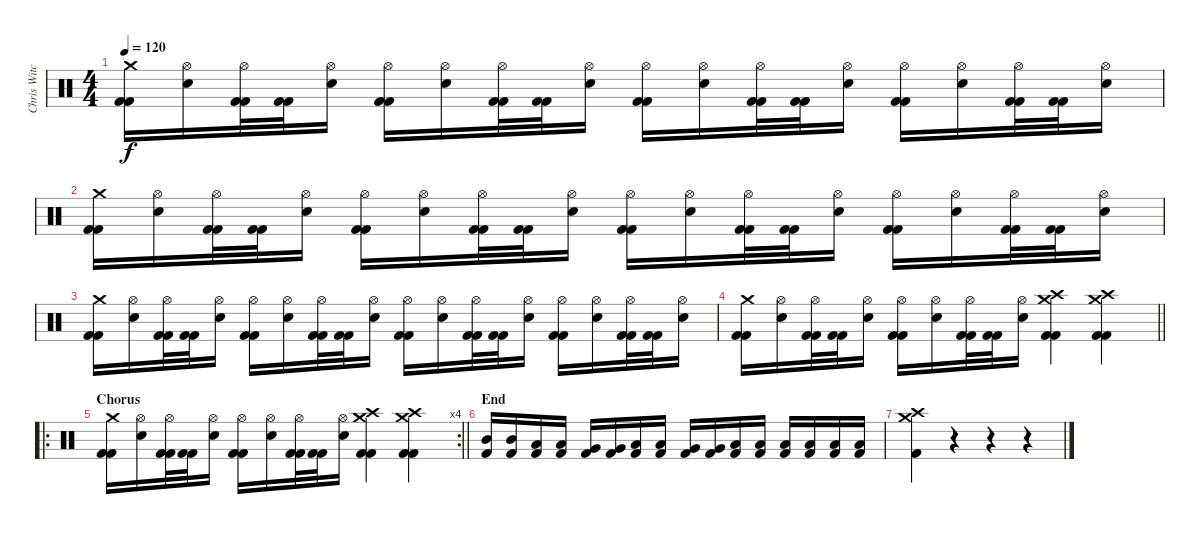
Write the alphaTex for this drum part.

\track ("Chris Witchhunter" "Chris Witc") {instrument percussion}
\staff {score}
\articulation defaults
\ts (4 4)
\tempo 120
\clef neutral
\ks c
("Crash medium (hit)" "Kick (hit) 2" "Kick (hit) 2").16{dy f} ("Hi-Hat (open)" "Snare (hit) 2").16 ("Hi-Hat (open)" "Kick (hit) 2" "Kick (hit) 2").32 ("Kick (hit) 2" "Kick (hit) 2").32 ("Hi-Hat (open)" "Snare (hit) 2").16 ("Hi-Hat (open)" "Kick (hit) 2" "Kick (hit) 2").16 ("Hi-Hat (open)" "Snare (hit) 2").16 ("Hi-Hat (open)" "Kick (hit) 2" "Kick (hit) 2").32 ("Kick (hit) 2" "Kick (hit) 2").32 ("Hi-Hat (open)" "Snare (hit) 2").16 ("Hi-Hat (open)" "Kick (hit) 2" "Kick (hit) 2").16 ("Hi-Hat (open)" "Snare (hit) 2").16 ("Hi-Hat (open)" "Kick (hit) 2" "Kick (hit) 2").32 ("Kick (hit) 2" "Kick (hit) 2").32 ("Hi-Hat (open)" "Snare (hit) 2").16 ("Hi-Hat (open)" "Kick (hit) 2" "Kick (hit) 2").16 ("Hi-Hat (open)" "Snare (hit) 2").16 ("Hi-Hat (open)" "Kick (hit) 2" "Kick (hit) 2").32 ("Kick (hit) 2" "Kick (hit) 2").32 ("Hi-Hat (open)" "Snare (hit) 2").16 |
("Crash medium (hit)" "Kick (hit) 2" "Kick (hit) 2").16 ("Hi-Hat (open)" "Snare (hit) 2").16 ("Hi-Hat (open)" "Kick (hit) 2" "Kick (hit) 2").32 ("Kick (hit) 2" "Kick (hit) 2").32 ("Hi-Hat (open)" "Snare (hit) 2").16 ("Hi-Hat (open)" "Kick (hit) 2" "Kick (hit) 2").16 ("Hi-Hat (open)" "Snare (hit) 2").16 ("Hi-Hat (open)" "Kick (hit) 2" "Kick (hit) 2").32 ("Kick (hit) 2" "Kick (hit) 2").32 ("Hi-Hat (open)" "Snare (hit) 2").16 ("Hi-Hat (open)" "Kick (hit) 2" "Kick (hit) 2").16 ("Hi-Hat (open)" "Snare (hit) 2").16 ("Hi-Hat (open)" "Kick (hit) 2" "Kick (hit) 2").32 ("Kick (hit) 2" "Kick (hit) 2").32 ("Hi-Hat (open)" "Snare (hit) 2").16 ("Hi-Hat (open)" "Kick (hit) 2" "Kick (hit) 2").16 ("Hi-Hat (open)" "Snare (hit) 2").16 ("Hi-Hat (open)" "Kick (hit) 2" "Kick (hit) 2").32 ("Kick (hit) 2" "Kick (hit) 2").32 ("Hi-Hat (open)" "Snare (hit) 2").16 |
("Crash medium (hit)" "Kick (hit) 2" "Kick (hit) 2").16 ("Hi-Hat (open)" "Snare (hit) 2").16 ("Hi-Hat (open)" "Kick (hit) 2" "Kick (hit) 2").32 ("Kick (hit) 2" "Kick (hit) 2").32 ("Hi-Hat (open)" "Snare (hit) 2").16 ("Hi-Hat (open)" "Kick (hit) 2" "Kick (hit) 2").16 ("Hi-Hat (open)" "Snare (hit) 2").16 ("Hi-Hat (open)" "Kick (hit) 2" "Kick (hit) 2").32 ("Kick (hit) 2" "Kick (hit) 2").32 ("Hi-Hat (open)" "Snare (hit) 2").16 ("Hi-Hat (open)" "Kick (hit) 2" "Kick (hit) 2").16 ("Hi-Hat (open)" "Snare (hit) 2").16 ("Hi-Hat (open)" "Kick (hit) 2" "Kick (hit) 2").32 ("Kick (hit) 2" "Kick (hit) 2").32 ("Hi-Hat (open)" "Snare (hit) 2").16 ("Hi-Hat (open)" "Kick (hit) 2" "Kick (hit) 2").16 ("Hi-Hat (open)" "Snare (hit) 2").16 ("Hi-Hat (open)" "Kick (hit) 2" "Kick (hit) 2").32 ("Kick (hit) 2" "Kick (hit) 2").32 ("Hi-Hat (open)" "Snare (hit) 2").16 |
\barLineRight lightlight
("Crash medium (hit)" "Kick (hit) 2" "Kick (hit) 2").16 ("Hi-Hat (open)" "Snare (hit) 2").16 ("Hi-Hat (open)" "Kick (hit) 2" "Kick (hit) 2").32 ("Kick (hit) 2" "Kick (hit) 2").32 ("Hi-Hat (open)" "Snare (hit) 2").16 ("Hi-Hat (open)" "Kick (hit) 2" "Kick (hit) 2").16 ("Hi-Hat (open)" "Snare (hit) 2").16 ("Hi-Hat (open)" "Kick (hit) 2" "Kick (hit) 2").32 ("Kick (hit) 2" "Kick (hit) 2").32 ("Hi-Hat (open)" "Snare (hit) 2").16 ("Crash high (hit)" "Crash medium (hit)" "Kick (hit) 2" "Kick (hit) 2").4 ("Crash high (hit)" "Crash medium (hit)" "Kick (hit) 2" "Kick (hit) 2").4 |
\ro
\rc 4
\section ("" "Chorus")
\barLineRight lightlight
("Crash medium (hit)" "Kick (hit) 2" "Kick (hit) 2").16 ("Hi-Hat (open)" "Snare (hit) 2").16 ("Hi-Hat (open)" "Kick (hit) 2" "Kick (hit) 2").32 ("Kick (hit) 2" "Kick (hit) 2").32 ("Hi-Hat (open)" "Snare (hit) 2").16 ("Hi-Hat (open)" "Kick (hit) 2" "Kick (hit) 2").16 ("Hi-Hat (open)" "Snare (hit) 2").16 ("Hi-Hat (open)" "Kick (hit) 2" "Kick (hit) 2").32 ("Kick (hit) 2" "Kick (hit) 2").32 ("Hi-Hat (open)" "Snare (hit) 2").16 ("Crash high (hit)" "Crash medium (hit)" "Kick (hit) 2" "Kick (hit) 2").4 ("Crash high (hit)" "Crash medium (hit)" "Kick (hit) 2" "Kick (hit) 2").4 |
\section ("" "End")
("Kick (hit) 2" "Mid Tom (hit)").16 ("Kick (hit) 2" "Mid Tom (hit)").16 ("Kick (hit) 2" "Low Tom (hit)").16 ("Kick (hit) 2" "Low Tom (hit)").16 ("Kick (hit) 2" "Very Low Tom (hit)").16 ("Kick (hit) 2" "Very Low Tom (hit)").16 ("Kick (hit) 2" "Low Tom (hit)").16 ("Kick (hit) 2" "Low Tom (hit)").16 ("Kick (hit) 2" "Very Low Tom (hit)").16 ("Kick (hit) 2" "Very Low Tom (hit)").16 ("Kick (hit) 2" "Low Floor Tom (hit)").16 ("Kick (hit) 2" "Low Floor Tom (hit)").16 ("Kick (hit) 2" "Low Floor Tom (hit)").16 ("Kick (hit) 2" "Low Floor Tom (hit)").16 ("Kick (hit) 2" "Low Floor Tom (hit)").16 ("Kick (hit) 2" "Low Floor Tom (hit)").16 |
("Crash high (hit)" "Crash medium (hit)" "Kick (hit) 2").4 r.4 r.4 r.4
